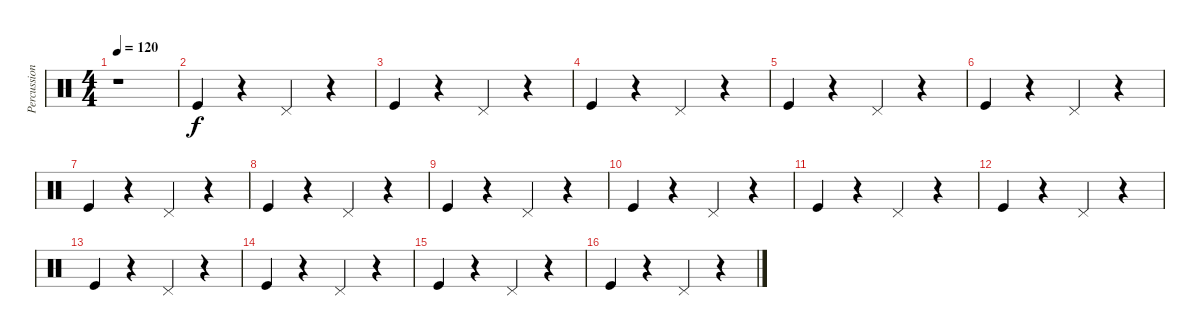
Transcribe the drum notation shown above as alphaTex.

\track ("Percussion" "Percussion") {instrument percussion}
\staff {score}
\articulation defaults
\ts (4 4)
\tempo 120
\clef neutral
\ks c
r.1{dy f} |
"Kick (hit)".4 r.4 "Pedal Hi-Hat (hit)".4 r.4 |
"Kick (hit)".4 r.4 "Pedal Hi-Hat (hit)".4 r.4 |
"Kick (hit)".4 r.4 "Pedal Hi-Hat (hit)".4 r.4 |
"Kick (hit)".4 r.4 "Pedal Hi-Hat (hit)".4 r.4 |
"Kick (hit)".4 r.4 "Pedal Hi-Hat (hit)".4 r.4 |
"Kick (hit)".4 r.4 "Pedal Hi-Hat (hit)".4 r.4 |
"Kick (hit)".4 r.4 "Pedal Hi-Hat (hit)".4 r.4 |
"Kick (hit)".4 r.4 "Pedal Hi-Hat (hit)".4 r.4 |
"Kick (hit)".4 r.4 "Pedal Hi-Hat (hit)".4 r.4 |
"Kick (hit)".4 r.4 "Pedal Hi-Hat (hit)".4 r.4 |
"Kick (hit)".4 r.4 "Pedal Hi-Hat (hit)".4 r.4 |
"Kick (hit)".4 r.4 "Pedal Hi-Hat (hit)".4 r.4 |
"Kick (hit)".4 r.4 "Pedal Hi-Hat (hit)".4 r.4 |
"Kick (hit)".4 r.4 "Pedal Hi-Hat (hit)".4 r.4 |
"Kick (hit)".4 r.4 "Pedal Hi-Hat (hit)".4 r.4
